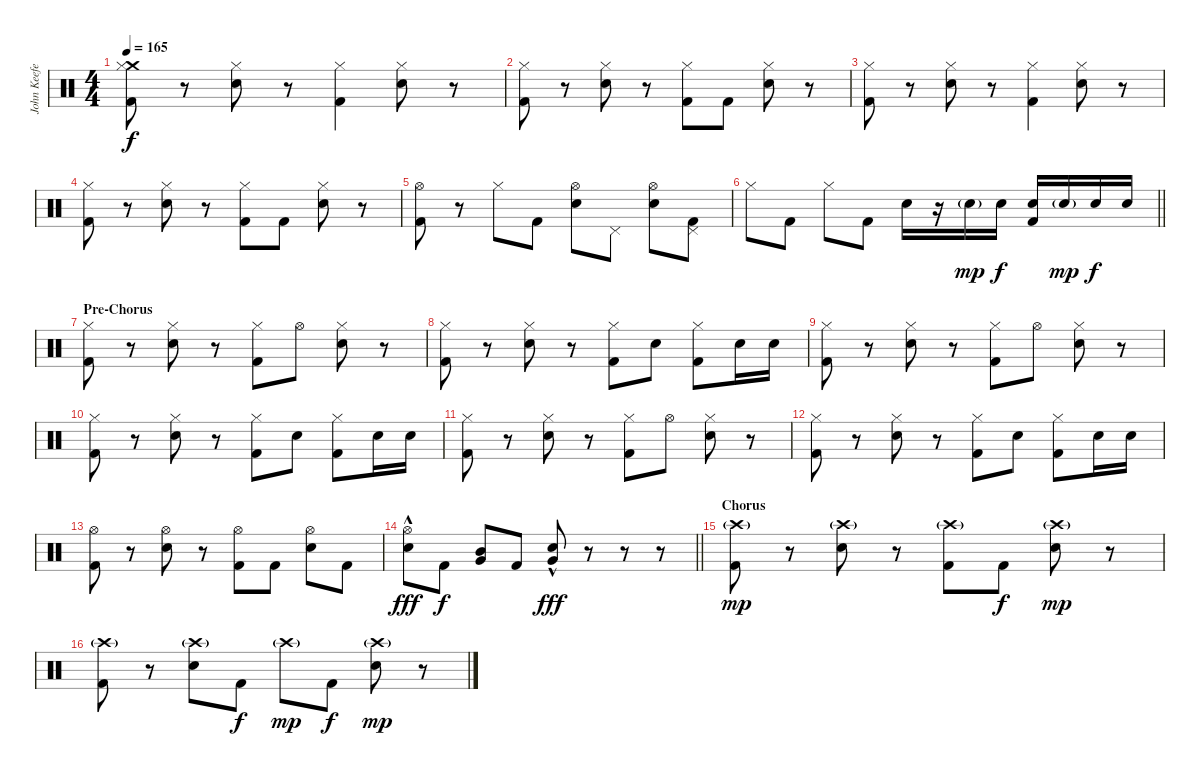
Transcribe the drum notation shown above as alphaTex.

\track ("John Keefe (Percussion)" "John Keefe") {instrument percussion}
\staff {score}
\articulation defaults
\ts (4 4)
\tempo 165
\clef neutral
\ks c
("Crash medium (hit)" "Hi-Hat (closed)" "Kick (hit) 2").8{dy f} r.8 ("Hi-Hat (closed)" "Electric Snare (hit)").8 r.8 ("Hi-Hat (closed)" "Kick (hit) 2").4 ("Hi-Hat (closed)" "Electric Snare (hit)").8 r.8 |
("Hi-Hat (closed)" "Kick (hit) 2").8 r.8 ("Hi-Hat (closed)" "Electric Snare (hit)").8 r.8 ("Hi-Hat (closed)" "Kick (hit) 2").8 "Kick (hit) 2".8 ("Hi-Hat (closed)" "Electric Snare (hit)").8 r.8 |
("Hi-Hat (closed)" "Kick (hit) 2").8 r.8 ("Hi-Hat (closed)" "Electric Snare (hit)").8 r.8 ("Hi-Hat (closed)" "Kick (hit) 2").4 ("Hi-Hat (closed)" "Electric Snare (hit)").8 r.8 |
("Hi-Hat (closed)" "Kick (hit) 2").8 r.8 ("Hi-Hat (closed)" "Electric Snare (hit)").8 r.8 ("Hi-Hat (closed)" "Kick (hit) 2").8 "Kick (hit) 2".8 ("Hi-Hat (closed)" "Electric Snare (hit)").8 r.8 |
("Hi-Hat (open)" "Kick (hit) 2").8 r.8 "Hi-Hat (closed)".8 "Kick (hit) 2".8 ("Hi-Hat (open)" "Electric Snare (hit)").8 "Pedal Hi-Hat (hit)".8 ("Hi-Hat (open)" "Electric Snare (hit)").8 ("Pedal Hi-Hat (hit)" "Kick (hit) 2").8 |
\barLineRight lightlight "Hi-Hat (closed)".8 "Kick (hit) 2".8 "Hi-Hat (closed)".8 "Kick (hit) 2".8 "Electric Snare (hit)".16
r.16 "Electric Snare (hit)"{g}.16{dy mp} "Electric Snare (hit)".16{dy f} ("Electric Snare (hit)" "Kick (hit) 2").16 "Electric Snare (hit)"{g}.16{dy mp} "Electric Snare (hit)".16{dy f} "Electric Snare (hit)".16 |
\section ("" "Pre-Chorus")
("Hi-Hat (closed)" "Kick (hit) 2").8 r.8 ("Hi-Hat (closed)" "Electric Snare (hit)").8 r.8 ("Hi-Hat (closed)" "Kick (hit) 2").8 "Hi-Hat (open)".8 ("Hi-Hat (closed)" "Electric Snare (hit)").8 r.8 |
("Hi-Hat (closed)" "Kick (hit) 2").8 r.8 ("Hi-Hat (closed)" "Electric Snare (hit)").8 r.8 ("Hi-Hat (closed)" "Kick (hit) 2").8 "Electric Snare (hit)".8 ("Hi-Hat (closed)" "Kick (hit) 2").8 "Electric Snare (hit)".16 "Electric Snare (hit)".16 |
("Hi-Hat (closed)" "Kick (hit) 2").8 r.8 ("Hi-Hat (closed)" "Electric Snare (hit)").8 r.8 ("Hi-Hat (closed)" "Kick (hit) 2").8 "Hi-Hat (open)".8 ("Hi-Hat (closed)" "Electric Snare (hit)").8 r.8 |
("Hi-Hat (closed)" "Kick (hit) 2").8 r.8 ("Hi-Hat (closed)" "Electric Snare (hit)").8 r.8 ("Hi-Hat (closed)" "Kick (hit) 2").8 "Electric Snare (hit)".8 ("Hi-Hat (closed)" "Kick (hit) 2").8 "Electric Snare (hit)".16 "Electric Snare (hit)".16 |
("Hi-Hat (closed)" "Kick (hit) 2").8 r.8 ("Hi-Hat (closed)" "Electric Snare (hit)").8 r.8 ("Hi-Hat (closed)" "Kick (hit) 2").8 "Hi-Hat (open)".8 ("Hi-Hat (closed)" "Electric Snare (hit)").8 r.8 |
("Hi-Hat (closed)" "Kick (hit) 2").8 r.8 ("Hi-Hat (closed)" "Electric Snare (hit)").8 r.8 ("Hi-Hat (closed)" "Kick (hit) 2").8 "Electric Snare (hit)".8 ("Hi-Hat (closed)" "Kick (hit) 2").8 "Electric Snare (hit)".16 "Electric Snare (hit)".16 |
("Hi-Hat (open)" "Kick (hit) 2").8 r.8 ("Hi-Hat (open)" "Electric Snare (hit)").8 r.8 ("Hi-Hat (open)" "Kick (hit) 2").8 "Kick (hit) 2".8 ("Hi-Hat (open)" "Electric Snare (hit)").8 "Kick (hit) 2".8 |
\barLineRight lightlight
("Hi-Hat (open)" "Electric Snare (hit)"{hac}).8{dy fff} "Kick (hit) 2".8{dy f} ("Mid Tom (hit)" "Very Low Tom (hit)").8 "Kick (hit) 2".8 ("Very Low Tom (hit)"{hac} "Electric Snare (hit)"{hac}).8{dy fff} r.8 r.8 r.8 |
\section ("" "Chorus")
("Crash high (hit)"{g} "Kick (hit) 2").8{dy mp} r.8 ("Crash high (hit)"{g} "Electric Snare (hit)").8 r.8 ("Crash high (hit)"{g} "Kick (hit) 2").8 "Kick (hit) 2".8{dy f} ("Crash high (hit)"{g} "Electric Snare (hit)").8{dy mp} r.8 |
("Crash high (hit)"{g} "Kick (hit) 2").8 r.8 ("Crash high (hit)"{g} "Electric Snare (hit)").8 "Kick (hit) 2".8{dy f} "Crash high (hit)"{g}.8{dy mp} "Kick (hit) 2".8{dy f} ("Crash high (hit)"{g} "Electric Snare (hit)").8{dy mp} r.8
